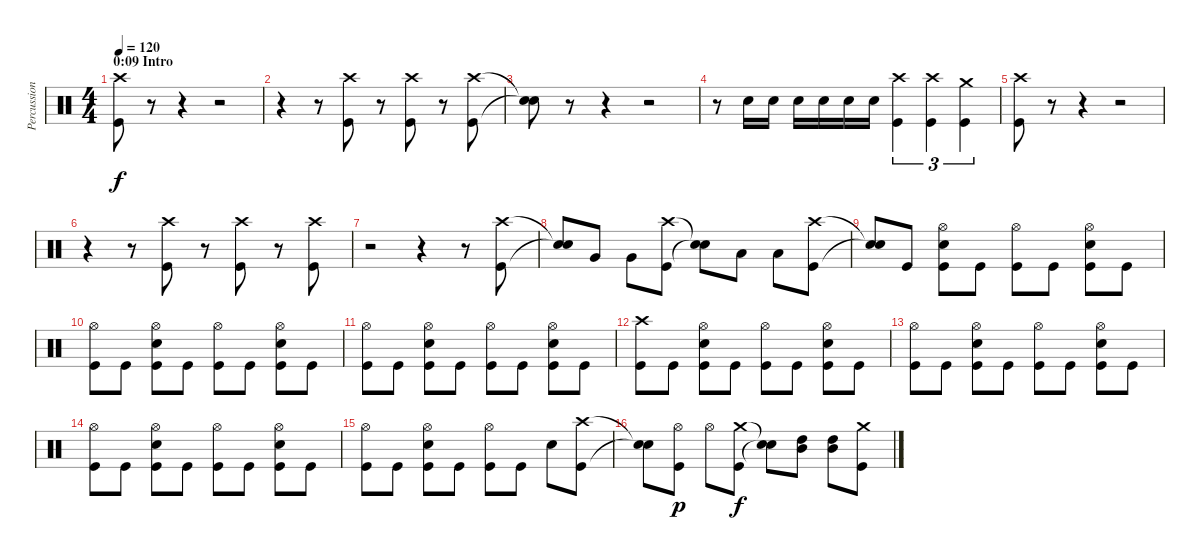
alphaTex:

\track ("Percussion" "Percussion") {instrument percussion}
\staff {score}
\articulation defaults
\ts (4 4)
\section ("" "0:09 Intro")
\tempo 120
\tempo 192
\tempo 120
\clef neutral
\ks c
("Crash high (hit)" "Kick (hit)").8{dy f} r.8 r.4 r.2 |
r.4 r.8 ("Crash high (hit)" "Kick (hit)").8 r.8 ("Crash high (hit)" "Kick (hit)").8 r.8 ("Crash high (hit)" "Kick (hit)").8 |
("Snare (hit)"{t} "Snare (hit)"{t}).8 r.8 r.4 r.2 |
r.8 "Snare (hit) 2".16 "Snare (hit) 2".16 "Snare (hit) 2".16 "Snare (hit) 2".16 "Snare (hit) 2".16 "Snare (hit) 2".16 ("Crash high (hit)" "Kick (hit)").4{tu (3 2)} ("Crash high (hit)" "Kick (hit)").4{tu (3 2)} ("Crash medium (hit)" "Kick (hit)").4{tu (3 2)} |
("Crash high (hit)" "Kick (hit)").8 r.8 r.4 r.2 |
r.4 r.8 ("Crash high (hit)" "Kick (hit)").8 r.8 ("Crash high (hit)" "Kick (hit)").8 r.8 ("Crash high (hit)" "Kick (hit)").8 |
r.2 r.4 r.8 ("Crash high (hit)" "Kick (hit)").8 |
("Snare (hit)"{t} "Snare (hit)"{t}).8 "Very Low Tom (hit)".8 "Very Low Tom (hit)".8 ("Crash high (hit)" "Kick (hit)").8 ("Snare (hit)"{t} "Snare (hit)"{t}).8 "Low Floor Tom (hit)".8 "Low Floor Tom (hit)".8 ("Crash high (hit)" "Kick (hit)").8 |
("Snare (hit)"{t} "Snare (hit)"{t}).8 "Kick (hit)".8 ("Hi-Hat (open)" "Snare (hit) 2" "Kick (hit)").8 "Kick (hit)".8 ("Hi-Hat (open)" "Kick (hit)").8 "Kick (hit)".8 ("Hi-Hat (open)" "Snare (hit) 2" "Kick (hit)").8 "Kick (hit)".8 |
("Hi-Hat (open)" "Kick (hit)").8 "Kick (hit)".8 ("Hi-Hat (open)" "Snare (hit) 2" "Kick (hit)").8 "Kick (hit)".8 ("Hi-Hat (open)" "Kick (hit)").8 "Kick (hit)".8 ("Hi-Hat (open)" "Snare (hit) 2" "Kick (hit)").8 "Kick (hit)".8 |
("Hi-Hat (open)" "Kick (hit)").8 "Kick (hit)".8 ("Hi-Hat (open)" "Snare (hit) 2" "Kick (hit)").8 "Kick (hit)".8 ("Hi-Hat (open)" "Kick (hit)").8 "Kick (hit)".8 ("Hi-Hat (open)" "Snare (hit) 2" "Kick (hit)").8 "Kick (hit)".8 |
("Crash high (hit)" "Kick (hit)").8 "Kick (hit)".8 ("Hi-Hat (open)" "Snare (hit) 2" "Kick (hit)").8 "Kick (hit)".8 ("Hi-Hat (open)" "Kick (hit)").8 "Kick (hit)".8 ("Hi-Hat (open)" "Snare (hit) 2" "Kick (hit)").8 "Kick (hit)".8 |
("Hi-Hat (open)" "Kick (hit)").8 "Kick (hit)".8 ("Hi-Hat (open)" "Snare (hit) 2" "Kick (hit)").8 "Kick (hit)".8 ("Hi-Hat (open)" "Kick (hit)").8 "Kick (hit)".8 ("Hi-Hat (open)" "Snare (hit) 2" "Kick (hit)").8 "Kick (hit)".8 |
("Hi-Hat (open)" "Kick (hit)").8 "Kick (hit)".8 ("Hi-Hat (open)" "Snare (hit) 2" "Kick (hit)").8 "Kick (hit)".8 ("Hi-Hat (open)" "Kick (hit)").8 "Kick (hit)".8 ("Hi-Hat (open)" "Snare (hit) 2" "Kick (hit)").8 "Kick (hit)".8 |
("Hi-Hat (open)" "Kick (hit)").8 "Kick (hit)".8 ("Hi-Hat (open)" "Snare (hit) 2" "Kick (hit)").8 "Kick (hit)".8 ("Hi-Hat (open)" "Kick (hit)").8 "Kick (hit)".8 "Snare (hit) 2".8 ("Crash high (hit)" "Kick (hit)").8 |
("Snare (hit)"{t} "Snare (hit)"{t}).8 ("Hi-Hat (open)" "Kick (hit)").8{dy p} "Hi-Hat (open)".8 ("Crash medium (hit)" "Kick (hit)").8{dy f} ("Snare (hit)"{t} "Snare (hit)"{t}).8 ("High Tom (hit)" "Mid Tom (hit)").8 ("High Tom (hit)" "Mid Tom (hit)").8 ("Crash medium (hit)" "Kick (hit)").8
